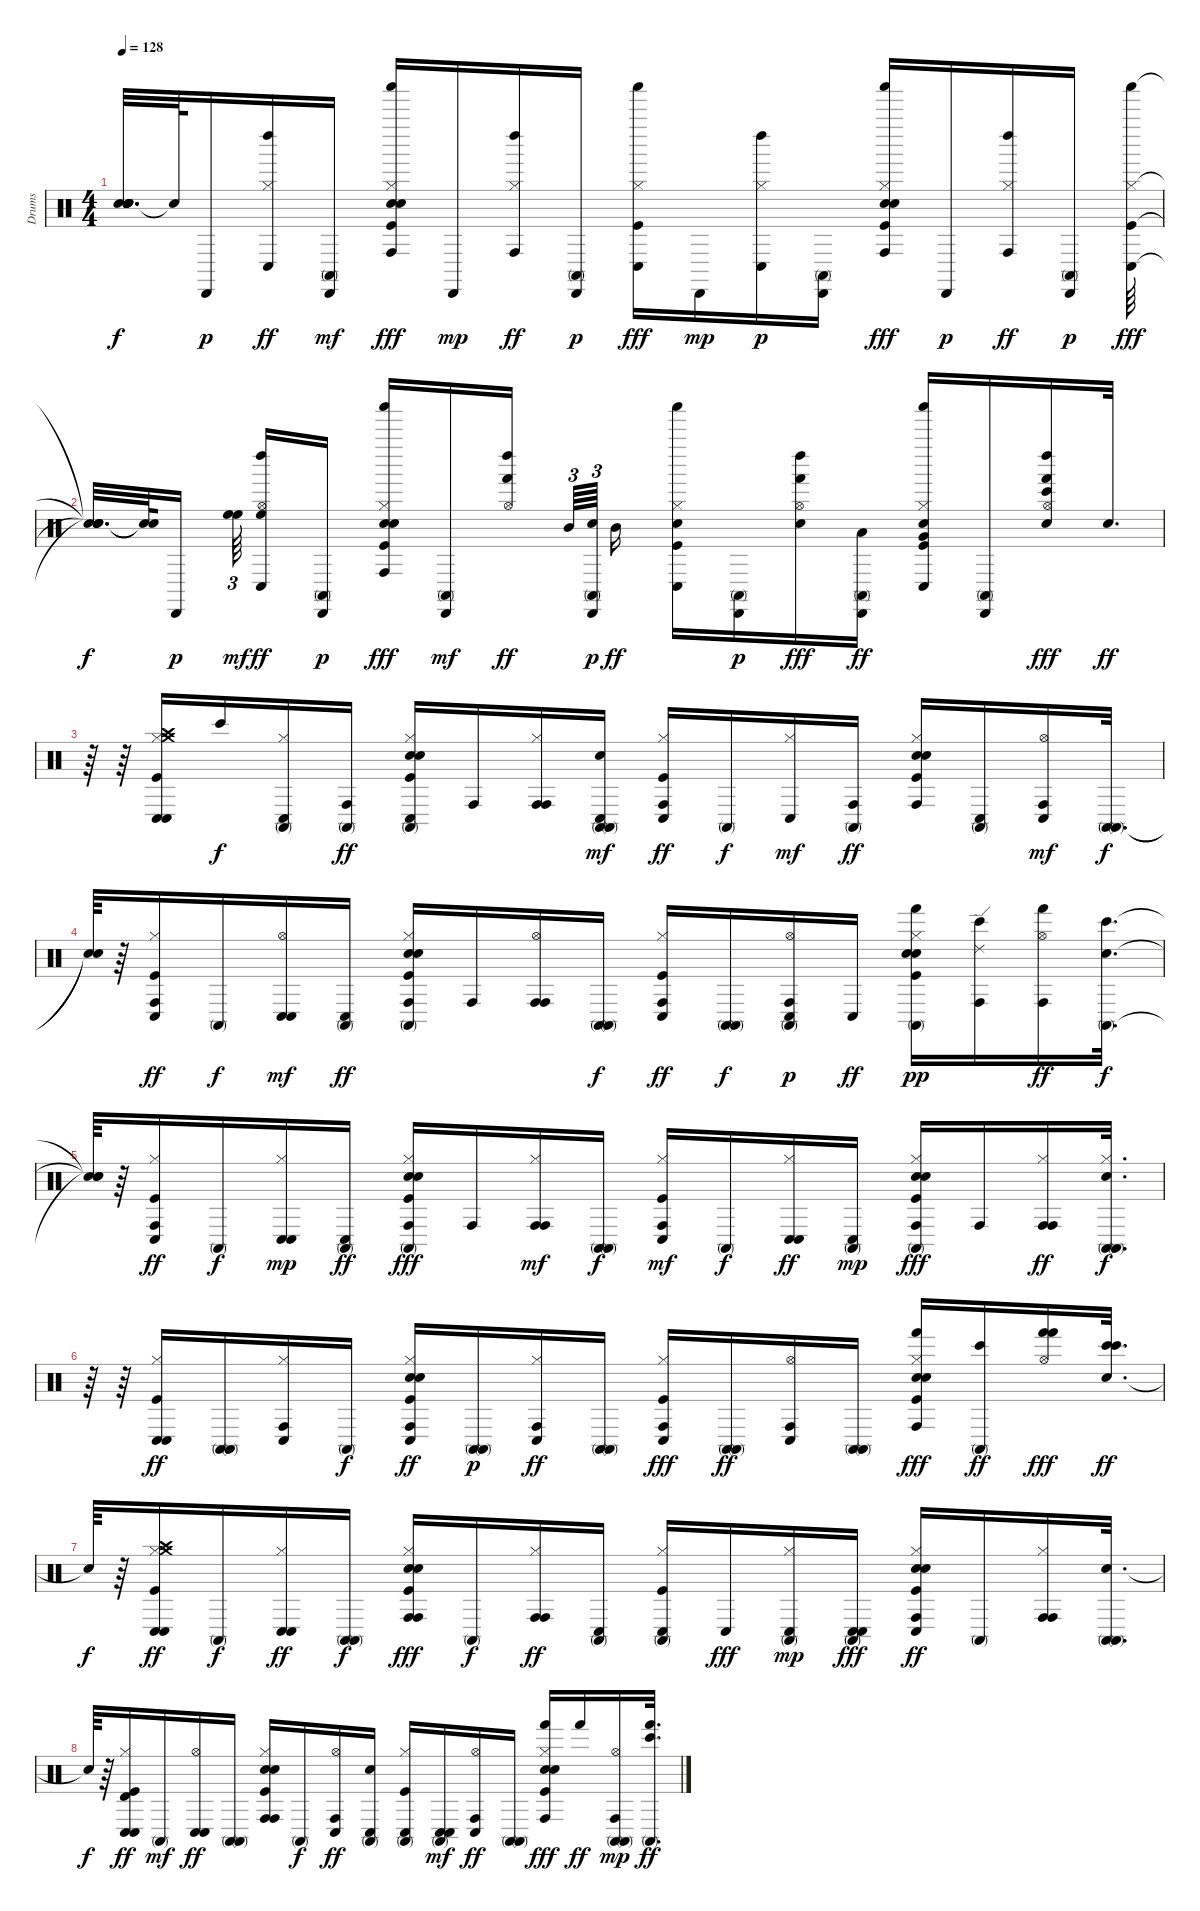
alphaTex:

\track ("Drums" "Drums") {instrument percussion}
\staff {score}
\articulation defaults
\ts (4 4)
\tempo 128
\clef neutral
\ks c
("Snare (hit)"{t} "Snare (hit)"{t} "Snare (hit)"{t} "Snare (hit)"{t} "Snare (hit)"{t} "Snare (hit)"{t}).32{d dy f} "Snare (hit)"{t}.64 "Cabasa (hit)".16{dy p} ("Hi-Hat (closed)" "Left Maraca (hit)" "Conga low (hit)").16{dy ff} ("Cabasa (hit)" "Conga high (mute)").16{dy mf} ("Kick (hit)" "Snare (hit) 2" "Hand Clap (hit)" "Hi-Hat (closed)" "Shaker (hit)" "Conga high (hit)").16{dy fff} "Cabasa (hit)".16{dy mp} ("Hi-Hat (closed)" "Left Maraca (hit)" "Conga high (hit)").16{dy ff} ("Cabasa (hit)" "Conga high (mute)").16{dy p} ("Kick (hit)" "Hi-Hat (closed)" "Shaker (hit)" "Conga low (hit)").16{dy fff} "Cabasa (hit)".16{dy mp} ("Hi-Hat (closed)" "Left Maraca (hit)" "Conga low (hit)").16{dy p} ("Cabasa (hit)" "Conga high (mute)").16 ("Kick (hit)" "Snare (hit) 2" "Hand Clap (hit)" "Hi-Hat (closed)" "Shaker (hit)" "Conga high (hit)").16{dy fff} "Cabasa (hit)".16{dy p} ("Hi-Hat (closed)" "Left Maraca (hit)" "Conga high (hit)").16{dy ff} ("Cabasa (hit)" "Conga high (mute)").16{dy p} ("Kick (hit)" "Hi-Hat (closed)" "Shaker (hit)" "Conga low (hit)").64{dy fff} |
("Snare (hit)"{t} "Snare (hit)"{t} "Snare (hit)"{t} "Snare (hit)"{t}).32{d dy f} ("Snare (hit)"{t} "Snare (hit)"{t}).64 "Cabasa (hit)".16{dy p} ("High Floor Tom (hit)" "High Floor Tom (hit)").64{tu (3 2) dy mf} ("Hi-Hat (open)" "Left Maraca (hit)" "High Floor Tom (hit)" "Conga low (hit)").16{dy ff} ("Cabasa (hit)" "Conga high (mute)").16{dy p} ("Kick (hit)" "Snare (hit) 2" "Hand Clap (hit)" "Hi-Hat (closed)" "Shaker (hit)" "Conga high (hit)").16{dy fff} ("Cabasa (hit)" "Conga high (mute)").16{dy mf} ("Hi-Hat (open)" "Left Maraca (hit)" "Hand (hit)").16{dy ff} "Mid Tom (hit)".64{tu (3 2)} ("Snare (hit) 2" "Cabasa (hit)" "Conga high (mute)").64{tu (3 2) dy p} "Mid Tom (hit)".16{dy ff} ("Kick (hit)" "Snare (hit) 2" "Hi-Hat (closed)" "Shaker (hit)" "Conga low (hit)").16 ("Cabasa (hit)" "Conga high (mute)").16{dy p} ("Snare (hit) 2" "Hi-Hat (open)" "Left Maraca (hit)" "Hand (hit)").16{dy fff} ("Cabasa (hit)" "Conga high (mute)" "Low Tom (hit)").16{dy ff} ("Kick (hit)" "Hand Clap (hit)" "Hi-Hat (closed)" "Shaker (hit)" "Conga low (hit)" "Very Low Tom (hit)").16 ("Cabasa (hit)" "Conga high (mute)").16 ("Snare (hit) 2" "Hi-Hat (open)" "Left Maraca (hit)" "Hand (hit)" "Bongo High (hit)").16{dy fff} "Snare (hit) 2".32{d dy ff} |
r.64 r.64 ("Kick (hit)" "Hi-Hat (closed)" "Crash medium (hit)" "Crash high (hit)" "Conga low (hit)" "Conga low (hit)").16 "Bongo High (hit)".16{dy f} ("Hi-Hat (closed)" "Conga high (mute)" "Conga low (hit)").16 ("Conga high (hit)" "Conga high (mute)").16{dy ff} ("Kick (hit)" "Snare (hit) 2" "Hand Clap (hit)" "Hi-Hat (closed)" "Conga high (mute)" "Conga low (hit)").16 "Conga high (hit)".16 ("Hi-Hat (closed)" "Conga high (hit)" "Conga high (hit)").16 ("Snare (hit) 2" "Conga high (mute)" "Conga high (mute)" "Conga low (hit)").16{dy mf} ("Kick (hit)" "Hi-Hat (closed)" "Conga high (hit)" "Conga low (hit)").16{dy ff} "Conga high (mute)".16{dy f} ("Hi-Hat (closed)" "Conga low (hit)").16{dy mf} ("Conga high (hit)" "Conga high (mute)").16{dy ff} ("Kick (hit)" "Snare (hit) 2" "Hand Clap (hit)" "Hi-Hat (closed)" "Conga high (hit)").16 ("Conga high (mute)" "Conga low (hit)").16 ("Hi-Hat (open)" "Conga low (hit)" "Conga high (hit)").16{dy mf} ("Conga high (mute)" "Conga high (mute)").32{d dy f} |
("Snare (hit)"{t} "Snare (hit)"{t}).64 r.64 ("Kick (hit)" "Hi-Hat (closed)" "Conga high (hit)" "Conga low (hit)").16{dy ff} "Conga high (mute)".16{dy f} ("Hi-Hat (open)" "Conga low (hit)" "Conga low (hit)").16{dy mf} ("Conga low (hit)" "Conga high (mute)").16{dy ff} ("Kick (hit)" "Snare (hit) 2" "Hand Clap (hit)" "Hi-Hat (closed)" "Conga high (mute)" "Conga high (hit)").16 "Conga high (hit)".16 ("Hi-Hat (open)" "Conga high (hit)" "Conga high (hit)").16 ("Conga high (mute)" "Conga high (mute)").16{dy f} ("Kick (hit)" "Hi-Hat (closed)" "Conga high (hit)" "Conga low (hit)").16{dy ff} ("Conga high (mute)" "Conga high (mute)").16{dy f} ("Hi-Hat (open)" "Conga low (hit)" "Conga high (hit)" "Conga high (mute)").16{dy p} "Conga low (hit)".16{dy ff} ("Kick (hit)" "Snare (hit) 2" "Hand Clap (hit)" "Hi-Hat (closed)" "Conga high (mute)" "Hand (hit)").16{dy pp} ("Conga high (hit)" "Bongo High (hit)" "Ride (edge) 2").16 ("Hi-Hat (open)" "Conga high (hit)" "Hand (hit)").16{dy ff} ("Snare (hit) 2" "Conga high (mute)" "Bongo High (hit)").32{d dy f} |
("Snare (hit)"{t} "Snare (hit)"{t} "Snare (hit)"{t}).64 r.64 ("Kick (hit)" "Hi-Hat (closed)" "Conga high (hit)" "Conga low (hit)").16{dy ff} "Conga high (mute)".16{dy f} ("Hi-Hat (closed)" "Conga low (hit)" "Conga low (hit)").16{dy mp} ("Conga low (hit)" "Conga high (mute)").16{dy ff} ("Kick (hit)" "Snare (hit) 2" "Hand Clap (hit)" "Hi-Hat (closed)" "Conga high (mute)" "Conga high (hit)").16{dy fff} "Conga high (hit)".16 ("Hi-Hat (closed)" "Conga high (hit)" "Conga high (hit)").16{dy mf} ("Conga high (mute)" "Conga high (mute)").16{dy f} ("Kick (hit)" "Hi-Hat (closed)" "Conga high (hit)" "Conga low (hit)").16{dy mf} "Conga high (mute)".16{dy f} ("Hi-Hat (closed)" "Conga low (hit)" "Conga low (hit)").16{dy ff} ("Conga low (hit)" "Conga high (mute)").16{dy mp} ("Kick (hit)" "Snare (hit) 2" "Hand Clap (hit)" "Hi-Hat (closed)" "Conga high (mute)" "Conga high (hit)").16{dy fff} "Conga high (hit)".16 ("Hi-Hat (closed)" "Conga high (hit)" "Conga high (hit)").16{dy ff} ("Snare (hit) 2" "Hi-Hat (closed)" "Conga high (mute)" "Conga high (mute)").32{d dy f} |
r.64 r.64 ("Kick (hit)" "Hi-Hat (closed)" "Conga low (hit)" "Conga low (hit)").16{dy ff} ("Conga high (mute)" "Conga high (mute)").16 ("Hi-Hat (closed)" "Conga high (hit)" "Conga low (hit)").16 "Conga high (mute)".16{dy f} ("Kick (hit)" "Snare (hit) 2" "Hand Clap (hit)" "Hi-Hat (closed)" "Conga low (hit)" "Conga high (hit)").16{dy ff} ("Conga high (mute)" "Conga high (mute)").16{dy p} ("Hi-Hat (closed)" "Conga high (hit)" "Conga low (hit)").16{dy ff} ("Conga high (mute)" "Conga high (mute)").16 ("Kick (hit)" "Hi-Hat (closed)" "Conga low (hit)" "Conga high (hit)").16{dy fff} ("Conga high (mute)" "Conga high (mute)").16{dy ff} ("Hi-Hat (open)" "Conga high (hit)" "Conga low (hit)").16 ("Conga high (mute)" "Conga high (mute)").16 ("Kick (hit)" "Snare (hit) 2" "Hand Clap (hit)" "Hi-Hat (closed)" "Hand (hit)" "Conga high (hit)").16{dy fff} ("Bongo High (hit)" "Conga high (mute)").16{dy ff} ("Hi-Hat (open)" "Hand (hit)" "Hand (hit)").16{dy fff} ("Snare (hit) 2" "Bongo High (hit)" "Bongo High (hit)").32{d dy ff} |
"Snare (hit)"{t}.64{dy f} r.64 ("Kick (hit)" "Hi-Hat (closed)" "Crash medium (hit)" "Crash high (hit)" "Conga low (hit)" "Conga low (hit)").16{dy ff} "Conga high (mute)".16{dy f} ("Hi-Hat (closed)" "Conga low (hit)" "Conga low (hit)").16{dy ff} ("Conga high (mute)" "Conga high (mute)").16{dy f} ("Kick (hit)" "Snare (hit) 2" "Hand Clap (hit)" "Hi-Hat (closed)" "Conga high (hit)" "Conga high (hit)").16{dy fff} "Conga high (mute)".16{dy f} ("Hi-Hat (closed)" "Conga high (hit)" "Conga high (hit)").16{dy ff} ("Conga low (hit)" "Conga high (mute)").16 ("Kick (hit)" "Hi-Hat (closed)" "Conga high (mute)" "Conga low (hit)").16 "Conga low (hit)".16{dy fff} ("Hi-Hat (closed)" "Conga high (mute)" "Conga low (hit)").16{dy mp} ("Conga low (hit)" "Conga high (mute)" "Conga low (hit)").16{dy fff} ("Kick (hit)" "Snare (hit) 2" "Hand Clap (hit)" "Hi-Hat (closed)" "Conga low (hit)" "Conga high (hit)").16{dy ff} "Conga high (mute)".16 ("Hi-Hat (closed)" "Conga high (hit)" "Conga high (hit)").16 ("Snare (hit) 2" "Conga high (mute)" "Conga high (mute)").32{d} |
"Snare (hit)"{t}.64{dy f} r.64 ("Kick (hit)" "Hi-Hat (closed)" "Conga low (hit)" "Timbale high (hit)" "Conga low (hit)").16{dy ff} "Conga high (mute)".16{dy mf} ("Hi-Hat (open)" "Conga low (hit)" "Conga low (hit)").16{dy ff} ("Conga high (mute)" "Conga high (mute)").16 ("Kick (hit)" "Snare (hit) 2" "Hand Clap (hit)" "Hi-Hat (closed)" "Conga high (hit)" "Conga high (hit)").16 "Conga high (mute)".16{dy f} ("Hi-Hat (open)" "Conga low (hit)" "Conga high (hit)").16{dy ff} ("Snare (hit) 2" "Conga low (hit)" "Conga high (mute)").16 ("Kick (hit)" "Hi-Hat (closed)" "Conga high (mute)" "Conga low (hit)").16 ("Conga low (hit)" "Conga high (mute)" "Conga low (hit)").16{dy mf} ("Hi-Hat (open)" "Conga low (hit)" "Conga high (hit)").16{dy ff} ("Conga high (mute)" "Conga high (mute)").16 ("Kick (hit)" "Snare (hit) 2" "Hand Clap (hit)" "Hi-Hat (closed)" "Conga high (hit)" "Hand (hit)").16{dy fff} "Hand (hit)".16{dy ff} ("Hi-Hat (open)" "Conga high (mute)" "Conga high (hit)" "Conga high (mute)").16{dy mp} ("Conga high (mute)" "Hand (hit)" "Bongo High (hit)").32{d dy ff}
